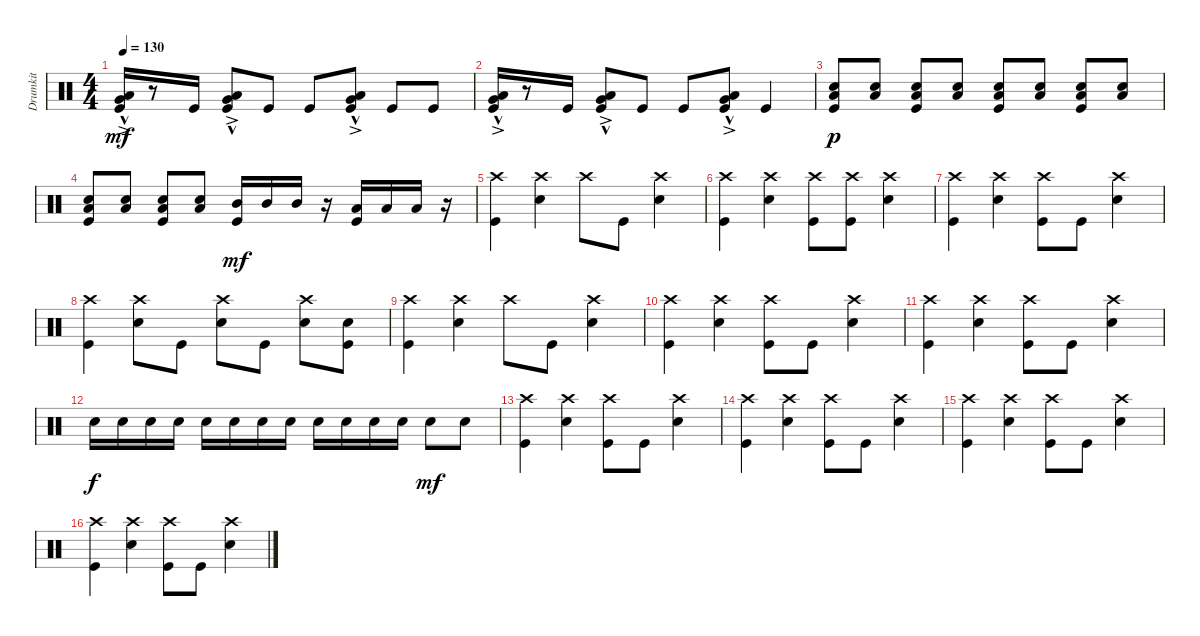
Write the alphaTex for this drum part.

\track ("Drumkit" "Drumkit") {instrument percussion}
\staff {score}
\articulation defaults
\ts (4 4)
\tempo 130
\clef neutral
\ks c
("Kick (hit)" "Very Low Tom (hit)"{hac} "Low Tom (hit)"{ac}).16{dy mf} r.8 "Kick (hit)".16 ("Kick (hit)" "Low Tom (hit)"{ac} "Very Low Tom (hit)"{hac}).8 "Kick (hit)".8 "Kick (hit)".8 ("Kick (hit)" "Very Low Tom (hit)"{hac} "Low Tom (hit)"{ac}).8 "Kick (hit)".8 "Kick (hit)".8 |
("Kick (hit)" "Very Low Tom (hit)"{hac} "Low Tom (hit)"{ac}).16 r.8 "Kick (hit)".16 ("Kick (hit)" "Low Tom (hit)"{ac} "Very Low Tom (hit)"{hac}).8 "Kick (hit)".8 "Kick (hit)".8 ("Kick (hit)" "Very Low Tom (hit)"{hac} "Low Tom (hit)"{ac}).8 "Kick (hit)".4 |
("Snare (hit) 2" "Kick (hit)" "Low Tom (hit)").8{dy p} ("Snare (hit) 2" "Low Tom (hit)").8 ("Snare (hit) 2" "Kick (hit)" "Low Tom (hit)").8 ("Snare (hit) 2" "Low Tom (hit)").8 ("Snare (hit) 2" "Kick (hit)" "Low Tom (hit)").8 ("Snare (hit) 2" "Low Tom (hit)").8 ("Snare (hit) 2" "Kick (hit)" "Low Tom (hit)").8 ("Snare (hit) 2" "Low Tom (hit)").8 |
("Kick (hit)" "Snare (hit) 2" "Low Tom (hit)").8 ("Snare (hit) 2" "Low Tom (hit)").8 ("Kick (hit)" "Snare (hit) 2" "Low Tom (hit)").8 ("Snare (hit) 2" "Low Tom (hit)").8 ("Kick (hit)" "Mid Tom (hit)").16{dy mf} "Mid Tom (hit)".16 "Mid Tom (hit)".16 r.16 ("Kick (hit)" "Low Tom (hit)").16 "Low Tom (hit)".16 "Low Tom (hit)".16 r.16 |
("Kick (hit)" "Crash high (hit)").4 ("Snare (hit) 2" "Crash high (hit)").4 "Crash high (hit)".8 "Kick (hit)".8 ("Snare (hit) 2" "Crash high (hit)").4 |
("Kick (hit)" "Crash high (hit)").4 ("Snare (hit) 2" "Crash high (hit)").4 ("Kick (hit)" "Crash high (hit)").8 ("Kick (hit)" "Crash high (hit)").8 ("Snare (hit) 2" "Crash high (hit)").4 |
("Kick (hit)" "Crash high (hit)").4 ("Snare (hit) 2" "Crash high (hit)").4 ("Kick (hit)" "Crash high (hit)").8 "Kick (hit)".8 ("Snare (hit) 2" "Crash high (hit)").4 |
("Kick (hit)" "Crash high (hit)").4 ("Snare (hit) 2" "Crash high (hit)").8 "Kick (hit)".8 ("Snare (hit) 2" "Crash high (hit)").8 "Kick (hit)".8 ("Snare (hit) 2" "Crash high (hit)").8 ("Kick (hit)" "Snare (hit) 2").8 |
("Kick (hit)" "Crash high (hit)").4 ("Snare (hit) 2" "Crash high (hit)").4 "Crash high (hit)".8 "Kick (hit)".8 ("Snare (hit) 2" "Crash high (hit)").4 |
("Kick (hit)" "Crash high (hit)").4 ("Snare (hit) 2" "Crash high (hit)").4 ("Kick (hit)" "Crash high (hit)").8 "Kick (hit)".8 ("Snare (hit) 2" "Crash high (hit)").4 |
("Kick (hit)" "Crash high (hit)").4 ("Snare (hit) 2" "Crash high (hit)").4 ("Kick (hit)" "Crash high (hit)").8 "Kick (hit)".8 ("Snare (hit) 2" "Crash high (hit)").4 |
"Snare (hit) 2".16{dy f volume 3} "Snare (hit) 2".16{volume 16} "Snare (hit) 2".16{volume 4} "Snare (hit) 2".16{volume 16} "Snare (hit) 2".16{volume 3} "Snare (hit) 2".16{volume 16} "Snare (hit) 2".16{volume 4} "Snare (hit) 2".16 "Snare (hit) 2".16{volume 3} "Snare (hit) 2".16 "Snare (hit) 2".16{volume 4} "Snare (hit) 2".16{volume 16} "Snare (hit) 2".8{dy mf} "Snare (hit) 2".8 |
("Kick (hit)" "Crash high (hit)").4 ("Snare (hit) 2" "Crash high (hit)").4 ("Kick (hit)" "Crash high (hit)").8 "Kick (hit)".8 ("Snare (hit) 2" "Crash high (hit)").4 |
("Kick (hit)" "Crash high (hit)").4 ("Snare (hit) 2" "Crash high (hit)").4 ("Kick (hit)" "Crash high (hit)").8 "Kick (hit)".8 ("Snare (hit) 2" "Crash high (hit)").4 |
("Kick (hit)" "Crash high (hit)").4 ("Snare (hit) 2" "Crash high (hit)").4 ("Kick (hit)" "Crash high (hit)").8 "Kick (hit)".8 ("Snare (hit) 2" "Crash high (hit)").4 |
("Kick (hit)" "Crash high (hit)").4 ("Snare (hit) 2" "Crash high (hit)").4 ("Kick (hit)" "Crash high (hit)").8 "Kick (hit)".8 ("Snare (hit) 2" "Crash high (hit)").4
